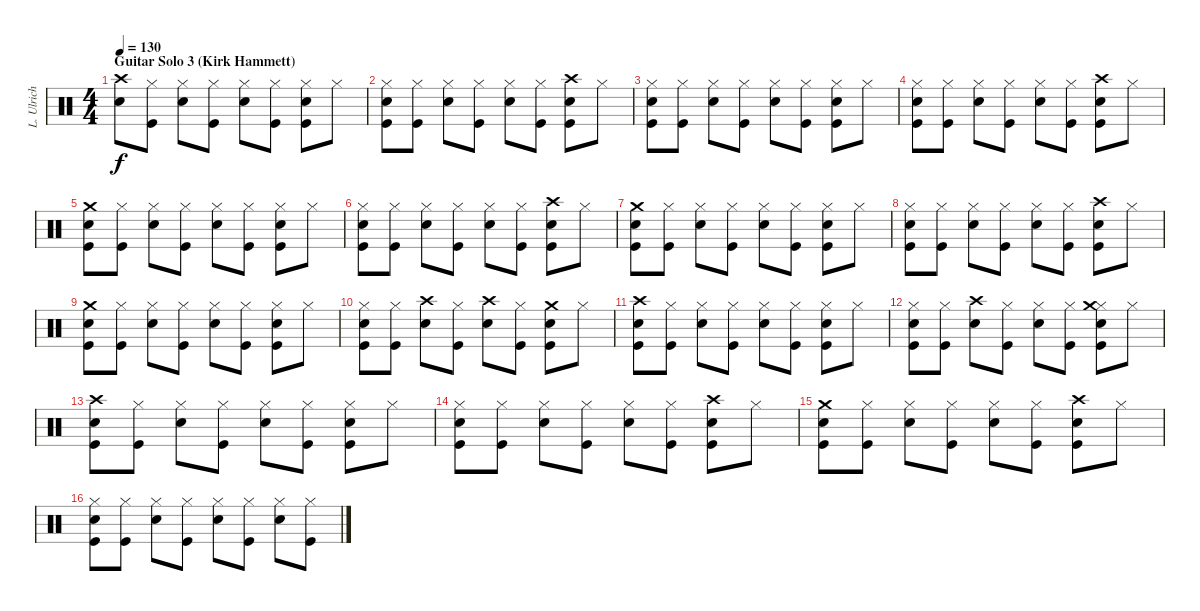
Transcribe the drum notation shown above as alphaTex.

\track ("L. Ulrich" "L. Ulrich") {instrument percussion}
\staff {score}
\articulation defaults
\ts (4 4)
\section ("" "Guitar Solo 3 (Kirk Hammett)")
\tempo 130
\clef neutral
\ks c
("Crash high (hit)" "Snare (hit) 2").8{dy f} ("Hi-Hat (closed)" "Kick (hit)").8 ("Hi-Hat (closed)" "Snare (hit) 2").8 ("Hi-Hat (closed)" "Kick (hit)").8 ("Hi-Hat (closed)" "Snare (hit) 2").8 ("Hi-Hat (closed)" "Kick (hit)").8 ("Hi-Hat (closed)" "Snare (hit) 2" "Kick (hit)").8 "Hi-Hat (closed)".8 |
("Hi-Hat (closed)" "Snare (hit) 2" "Kick (hit)").8 ("Hi-Hat (closed)" "Kick (hit)").8 ("Hi-Hat (closed)" "Snare (hit) 2").8 ("Hi-Hat (closed)" "Kick (hit)").8 ("Hi-Hat (closed)" "Snare (hit) 2").8 ("Hi-Hat (closed)" "Kick (hit)").8 ("Crash high (hit)" "Snare (hit) 2" "Kick (hit)").8 "Hi-Hat (closed)".8 |
("Hi-Hat (closed)" "Snare (hit) 2" "Kick (hit)").8 ("Hi-Hat (closed)" "Kick (hit)").8 ("Hi-Hat (closed)" "Snare (hit) 2").8 ("Hi-Hat (closed)" "Kick (hit)").8 ("Hi-Hat (closed)" "Snare (hit) 2").8 ("Hi-Hat (closed)" "Kick (hit)").8 ("Hi-Hat (closed)" "Snare (hit) 2" "Kick (hit)").8 "Hi-Hat (closed)".8 |
("Hi-Hat (closed)" "Snare (hit) 2" "Kick (hit)").8 ("Hi-Hat (closed)" "Kick (hit)").8 ("Hi-Hat (closed)" "Snare (hit) 2").8 ("Hi-Hat (closed)" "Kick (hit)").8 ("Hi-Hat (closed)" "Snare (hit) 2").8 ("Hi-Hat (closed)" "Kick (hit)").8 ("Crash high (hit)" "Snare (hit) 2" "Kick (hit)").8 "Hi-Hat (closed)".8 |
("Crash medium (hit)" "Snare (hit) 2" "Kick (hit)").8 ("Hi-Hat (closed)" "Kick (hit)").8 ("Hi-Hat (closed)" "Snare (hit) 2").8 ("Hi-Hat (closed)" "Kick (hit)").8 ("Hi-Hat (closed)" "Snare (hit) 2").8 ("Hi-Hat (closed)" "Kick (hit)").8 ("Hi-Hat (closed)" "Snare (hit) 2" "Kick (hit)").8 "Hi-Hat (closed)".8 |
("Hi-Hat (closed)" "Snare (hit) 2" "Kick (hit)").8 ("Hi-Hat (closed)" "Kick (hit)").8 ("Hi-Hat (closed)" "Snare (hit) 2").8 ("Hi-Hat (closed)" "Kick (hit)").8 ("Hi-Hat (closed)" "Snare (hit) 2").8 ("Hi-Hat (closed)" "Kick (hit)").8 ("Crash high (hit)" "Snare (hit) 2" "Kick (hit)").8 "Hi-Hat (closed)".8 |
("Crash medium (hit)" "Snare (hit) 2" "Kick (hit)").8 ("Hi-Hat (closed)" "Kick (hit)").8 ("Hi-Hat (closed)" "Snare (hit) 2").8 ("Hi-Hat (closed)" "Kick (hit)").8 ("Hi-Hat (closed)" "Snare (hit) 2").8 ("Hi-Hat (closed)" "Kick (hit)").8 ("Hi-Hat (closed)" "Snare (hit) 2" "Kick (hit)").8 "Hi-Hat (closed)".8 |
("Hi-Hat (closed)" "Snare (hit) 2" "Kick (hit)").8 ("Hi-Hat (closed)" "Kick (hit)").8 ("Hi-Hat (closed)" "Snare (hit) 2").8 ("Hi-Hat (closed)" "Kick (hit)").8 ("Hi-Hat (closed)" "Snare (hit) 2").8 ("Hi-Hat (closed)" "Kick (hit)").8 ("Crash high (hit)" "Snare (hit) 2" "Kick (hit)").8 "Hi-Hat (closed)".8 |
("Crash medium (hit)" "Snare (hit) 2" "Kick (hit)").8 ("Hi-Hat (closed)" "Kick (hit)").8 ("Hi-Hat (closed)" "Snare (hit) 2").8 ("Hi-Hat (closed)" "Kick (hit)").8 ("Hi-Hat (closed)" "Snare (hit) 2").8 ("Hi-Hat (closed)" "Kick (hit)").8 ("Hi-Hat (closed)" "Snare (hit) 2" "Kick (hit)").8 "Hi-Hat (closed)".8 |
("Hi-Hat (closed)" "Snare (hit) 2" "Kick (hit)").8 ("Hi-Hat (closed)" "Kick (hit)").8 ("Crash high (hit)" "Snare (hit) 2").8 ("Hi-Hat (closed)" "Kick (hit)").8 ("Crash high (hit)" "Snare (hit) 2").8 ("Hi-Hat (closed)" "Kick (hit)").8 ("Crash medium (hit)" "Snare (hit) 2" "Kick (hit)").8 "Hi-Hat (closed)".8 |
("Crash high (hit)" "Snare (hit) 2" "Kick (hit)").8 ("Hi-Hat (closed)" "Kick (hit)").8 ("Hi-Hat (closed)" "Snare (hit) 2").8 ("Hi-Hat (closed)" "Kick (hit)").8 ("Hi-Hat (closed)" "Snare (hit) 2").8 ("Hi-Hat (closed)" "Kick (hit)").8 ("Hi-Hat (closed)" "Snare (hit) 2" "Kick (hit)").8 "Hi-Hat (closed)".8 |
("Hi-Hat (closed)" "Snare (hit) 2" "Kick (hit)").8 ("Hi-Hat (closed)" "Kick (hit)").8 ("Crash high (hit)" "Snare (hit) 2").8 ("Hi-Hat (closed)" "Kick (hit)").8 ("Hi-Hat (closed)" "Snare (hit) 2").8 ("Hi-Hat (closed)" "Kick (hit)").8 ("Hi-Hat (closed)" "Crash medium (hit)" "Snare (hit) 2" "Kick (hit)").8 "Hi-Hat (closed)".8 |
("Crash high (hit)" "Snare (hit) 2" "Kick (hit)").8 ("Hi-Hat (closed)" "Kick (hit)").8 ("Hi-Hat (closed)" "Snare (hit) 2").8 ("Hi-Hat (closed)" "Kick (hit)").8 ("Hi-Hat (closed)" "Snare (hit) 2").8 ("Hi-Hat (closed)" "Kick (hit)").8 ("Hi-Hat (closed)" "Snare (hit) 2" "Kick (hit)").8 "Hi-Hat (closed)".8 |
("Hi-Hat (closed)" "Snare (hit) 2" "Kick (hit)").8 ("Hi-Hat (closed)" "Kick (hit)").8 ("Hi-Hat (closed)" "Snare (hit) 2").8 ("Hi-Hat (closed)" "Kick (hit)").8 ("Hi-Hat (closed)" "Snare (hit) 2").8 ("Hi-Hat (closed)" "Kick (hit)").8 ("Crash high (hit)" "Snare (hit) 2" "Kick (hit)").8 "Hi-Hat (closed)".8 |
("Crash medium (hit)" "Snare (hit) 2" "Kick (hit)").8 ("Hi-Hat (closed)" "Kick (hit)").8 ("Hi-Hat (closed)" "Snare (hit) 2").8 ("Hi-Hat (closed)" "Kick (hit)").8 ("Hi-Hat (closed)" "Snare (hit) 2").8 ("Hi-Hat (closed)" "Kick (hit)").8 ("Crash high (hit)" "Snare (hit) 2" "Kick (hit)").8 "Hi-Hat (closed)".8 |
("Hi-Hat (closed)" "Snare (hit) 2" "Kick (hit)").8 ("Hi-Hat (closed)" "Kick (hit)").8 ("Hi-Hat (closed)" "Snare (hit) 2").8 ("Hi-Hat (closed)" "Kick (hit)").8 ("Hi-Hat (closed)" "Snare (hit) 2").8 ("Hi-Hat (closed)" "Kick (hit)").8 ("Hi-Hat (closed)" "Snare (hit) 2").8 ("Hi-Hat (closed)" "Kick (hit)").8
